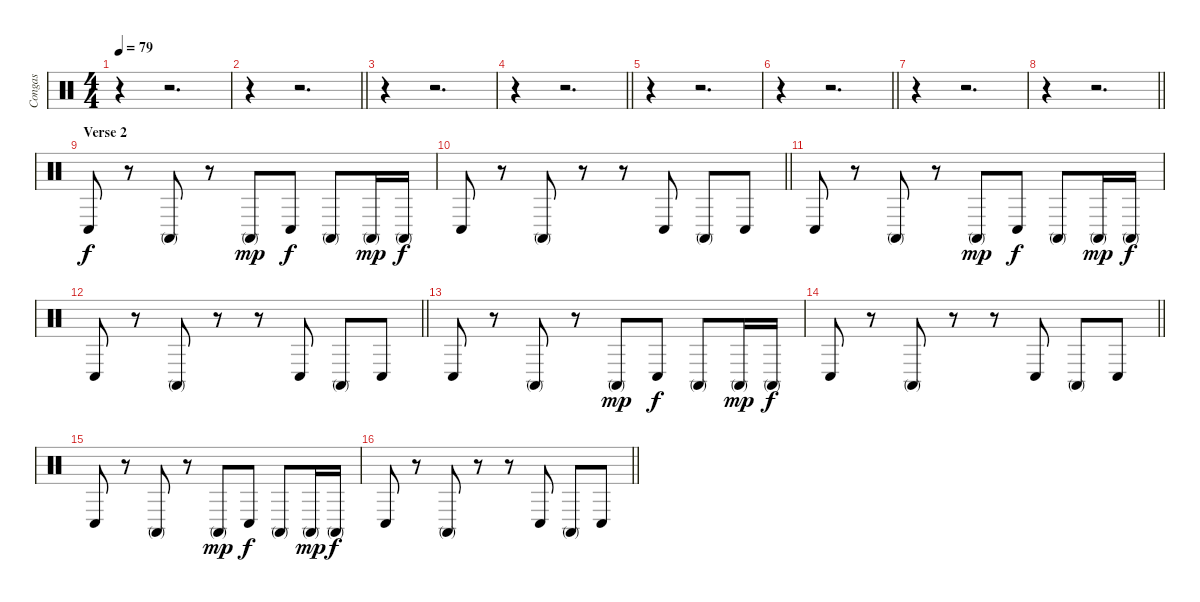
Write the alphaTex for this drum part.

\track ("Congas" "Congas") {instrument percussion}
\staff {score}
\articulation defaults
\ts (4 4)
\tempo 79
\clef neutral
\ks c
r.4{dy f} r.2{d} |
\barLineRight lightlight
r.4 r.2{d} |
r.4 r.2{d} |
\barLineRight lightlight
r.4 r.2{d} |
r.4 r.2{d} |
\barLineRight lightlight
r.4 r.2{d} |
\section ("" "")
r.4 r.2{d} |
\barLineRight lightlight
r.4 r.2{d} |
\section ("" "Verse 2")
"Conga low (hit)".8 r.8 "Conga high (mute)".8 r.8 "Conga high (mute)".8{dy mp} "Conga low (hit)".8{dy f} "Conga high (mute)".8 "Conga high (mute)".16{dy mp} "Conga high (mute)".16{dy f} |
\barLineRight lightlight "Conga low (hit)".8
r.8 "Conga high (mute)".8 r.8 r.8 "Conga low (hit)".8 "Conga high (mute)".8 "Conga low (hit)".8 |
"Conga low (hit)".8 r.8 "Conga high (mute)".8 r.8 "Conga high (mute)".8{dy mp} "Conga low (hit)".8{dy f} "Conga high (mute)".8 "Conga high (mute)".16{dy mp} "Conga high (mute)".16{dy f} |
\barLineRight lightlight "Conga low (hit)".8
r.8 "Conga high (mute)".8 r.8 r.8 "Conga low (hit)".8 "Conga high (mute)".8 "Conga low (hit)".8 |
"Conga low (hit)".8 r.8 "Conga high (mute)".8 r.8 "Conga high (mute)".8{dy mp} "Conga low (hit)".8{dy f} "Conga high (mute)".8 "Conga high (mute)".16{dy mp} "Conga high (mute)".16{dy f} |
\barLineRight lightlight "Conga low (hit)".8
r.8 "Conga high (mute)".8 r.8 r.8 "Conga low (hit)".8 "Conga high (mute)".8 "Conga low (hit)".8 |
"Conga low (hit)".8 r.8 "Conga high (mute)".8 r.8 "Conga high (mute)".8{dy mp} "Conga low (hit)".8{dy f} "Conga high (mute)".8 "Conga high (mute)".16{dy mp} "Conga high (mute)".16{dy f} |
\barLineRight lightlight "Conga low (hit)".8
r.8 "Conga high (mute)".8 r.8 r.8 "Conga low (hit)".8 "Conga high (mute)".8 "Conga low (hit)".8
